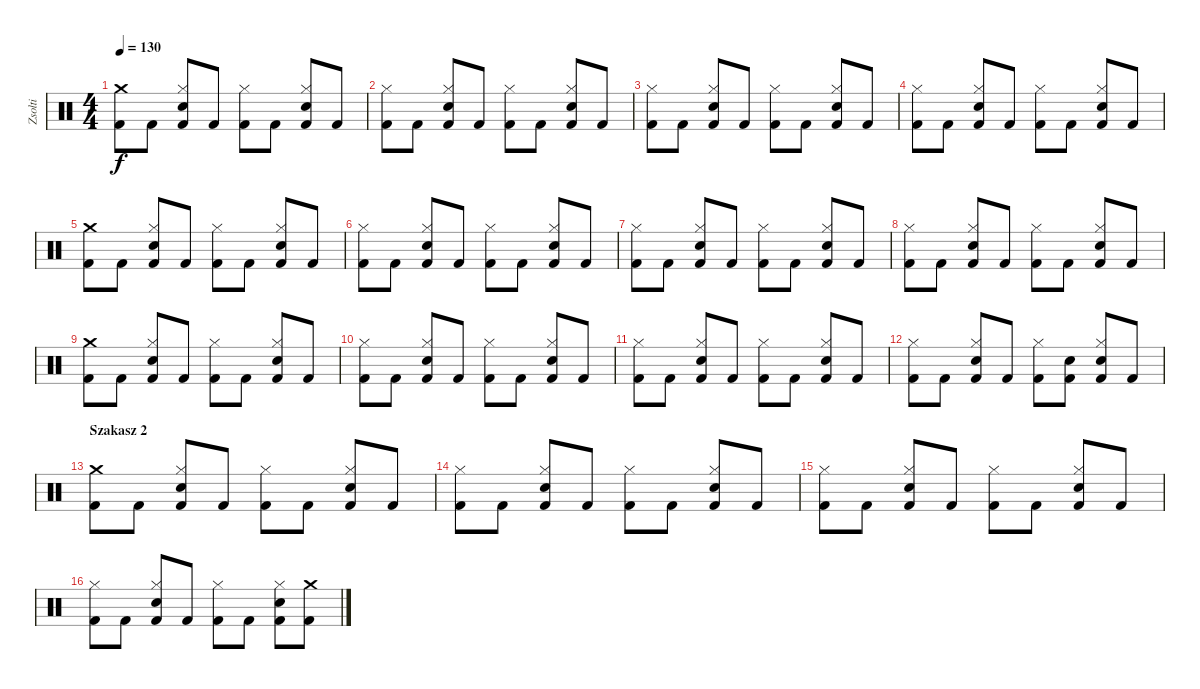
\track ("Zsolti" "Zsolti") {instrument percussion}
\staff {score}
\articulation defaults
\ts (4 4)
\tempo 130
\clef neutral
\ks c
("Crash medium (hit)" "Kick (hit) 2").8{dy f} "Kick (hit) 2".8 ("Hi-Hat (closed)" "Snare (hit) 2" "Kick (hit) 2").8 "Kick (hit) 2".8 ("Hi-Hat (closed)" "Kick (hit) 2").8 "Kick (hit) 2".8 ("Hi-Hat (closed)" "Snare (hit) 2" "Kick (hit) 2").8 "Kick (hit) 2".8 |
("Hi-Hat (closed)" "Kick (hit) 2").8 "Kick (hit) 2".8 ("Hi-Hat (closed)" "Snare (hit) 2" "Kick (hit) 2").8 "Kick (hit) 2".8 ("Hi-Hat (closed)" "Kick (hit) 2").8 "Kick (hit) 2".8 ("Hi-Hat (closed)" "Snare (hit) 2" "Kick (hit) 2").8 "Kick (hit) 2".8 |
("Hi-Hat (closed)" "Kick (hit) 2").8 "Kick (hit) 2".8 ("Hi-Hat (closed)" "Snare (hit) 2" "Kick (hit) 2").8 "Kick (hit) 2".8 ("Hi-Hat (closed)" "Kick (hit) 2").8 "Kick (hit) 2".8 ("Hi-Hat (closed)" "Snare (hit) 2" "Kick (hit) 2").8 "Kick (hit) 2".8 |
("Hi-Hat (closed)" "Kick (hit) 2").8 "Kick (hit) 2".8 ("Hi-Hat (closed)" "Snare (hit) 2" "Kick (hit) 2").8 "Kick (hit) 2".8 ("Hi-Hat (closed)" "Kick (hit) 2").8 "Kick (hit) 2".8 ("Hi-Hat (closed)" "Snare (hit) 2" "Kick (hit) 2").8 "Kick (hit) 2".8 |
("Crash medium (hit)" "Kick (hit) 2").8 "Kick (hit) 2".8 ("Hi-Hat (closed)" "Snare (hit) 2" "Kick (hit) 2").8 "Kick (hit) 2".8 ("Hi-Hat (closed)" "Kick (hit) 2").8 "Kick (hit) 2".8 ("Hi-Hat (closed)" "Snare (hit) 2" "Kick (hit) 2").8 "Kick (hit) 2".8 |
("Hi-Hat (closed)" "Kick (hit) 2").8 "Kick (hit) 2".8 ("Hi-Hat (closed)" "Snare (hit) 2" "Kick (hit) 2").8 "Kick (hit) 2".8 ("Hi-Hat (closed)" "Kick (hit) 2").8 "Kick (hit) 2".8 ("Hi-Hat (closed)" "Snare (hit) 2" "Kick (hit) 2").8 "Kick (hit) 2".8 |
("Hi-Hat (closed)" "Kick (hit) 2").8 "Kick (hit) 2".8 ("Hi-Hat (closed)" "Snare (hit) 2" "Kick (hit) 2").8 "Kick (hit) 2".8 ("Hi-Hat (closed)" "Kick (hit) 2").8 "Kick (hit) 2".8 ("Hi-Hat (closed)" "Snare (hit) 2" "Kick (hit) 2").8 "Kick (hit) 2".8 |
("Hi-Hat (closed)" "Kick (hit) 2").8 "Kick (hit) 2".8 ("Hi-Hat (closed)" "Snare (hit) 2" "Kick (hit) 2").8 "Kick (hit) 2".8 ("Hi-Hat (closed)" "Kick (hit) 2").8 "Kick (hit) 2".8 ("Hi-Hat (closed)" "Snare (hit) 2" "Kick (hit) 2").8 "Kick (hit) 2".8 |
("Crash medium (hit)" "Kick (hit) 2").8 "Kick (hit) 2".8 ("Hi-Hat (closed)" "Snare (hit) 2" "Kick (hit) 2").8 "Kick (hit) 2".8 ("Hi-Hat (closed)" "Kick (hit) 2").8 "Kick (hit) 2".8 ("Hi-Hat (closed)" "Snare (hit) 2" "Kick (hit) 2").8 "Kick (hit) 2".8 |
("Hi-Hat (closed)" "Kick (hit) 2").8 "Kick (hit) 2".8 ("Hi-Hat (closed)" "Snare (hit) 2" "Kick (hit) 2").8 "Kick (hit) 2".8 ("Hi-Hat (closed)" "Kick (hit) 2").8 "Kick (hit) 2".8 ("Hi-Hat (closed)" "Snare (hit) 2" "Kick (hit) 2").8 "Kick (hit) 2".8 |
("Hi-Hat (closed)" "Kick (hit) 2").8 "Kick (hit) 2".8 ("Hi-Hat (closed)" "Snare (hit) 2" "Kick (hit) 2").8 "Kick (hit) 2".8 ("Hi-Hat (closed)" "Kick (hit) 2").8 "Kick (hit) 2".8 ("Hi-Hat (closed)" "Snare (hit) 2" "Kick (hit) 2").8 "Kick (hit) 2".8 |
("Hi-Hat (closed)" "Kick (hit) 2").8 "Kick (hit) 2".8 ("Hi-Hat (closed)" "Snare (hit) 2" "Kick (hit) 2").8 "Kick (hit) 2".8 ("Hi-Hat (closed)" "Kick (hit) 2").8 ("Snare (hit) 2" "Kick (hit) 2").8 ("Hi-Hat (closed)" "Snare (hit) 2" "Kick (hit) 2").8 "Kick (hit) 2".8 |
\section ("" "Szakasz 2")
("Crash medium (hit)" "Kick (hit) 2").8 "Kick (hit) 2".8 ("Hi-Hat (closed)" "Snare (hit) 2" "Kick (hit) 2").8 "Kick (hit) 2".8 ("Hi-Hat (closed)" "Kick (hit) 2").8 "Kick (hit) 2".8 ("Hi-Hat (closed)" "Snare (hit) 2" "Kick (hit) 2").8 "Kick (hit) 2".8 |
("Hi-Hat (closed)" "Kick (hit) 2").8 "Kick (hit) 2".8 ("Hi-Hat (closed)" "Snare (hit) 2" "Kick (hit) 2").8 "Kick (hit) 2".8 ("Hi-Hat (closed)" "Kick (hit) 2").8 "Kick (hit) 2".8 ("Hi-Hat (closed)" "Snare (hit) 2" "Kick (hit) 2").8 "Kick (hit) 2".8 |
("Hi-Hat (closed)" "Kick (hit) 2").8 "Kick (hit) 2".8 ("Hi-Hat (closed)" "Snare (hit) 2" "Kick (hit) 2").8 "Kick (hit) 2".8 ("Hi-Hat (closed)" "Kick (hit) 2").8 "Kick (hit) 2".8 ("Hi-Hat (closed)" "Snare (hit) 2" "Kick (hit) 2").8 "Kick (hit) 2".8 |
("Hi-Hat (closed)" "Kick (hit) 2").8 "Kick (hit) 2".8 ("Hi-Hat (closed)" "Snare (hit) 2" "Kick (hit) 2").8 "Kick (hit) 2".8 ("Hi-Hat (closed)" "Kick (hit) 2").8 "Kick (hit) 2".8 ("Hi-Hat (closed)" "Snare (hit) 2" "Kick (hit) 2").8 ("Crash medium (hit)" "Kick (hit) 2").8
